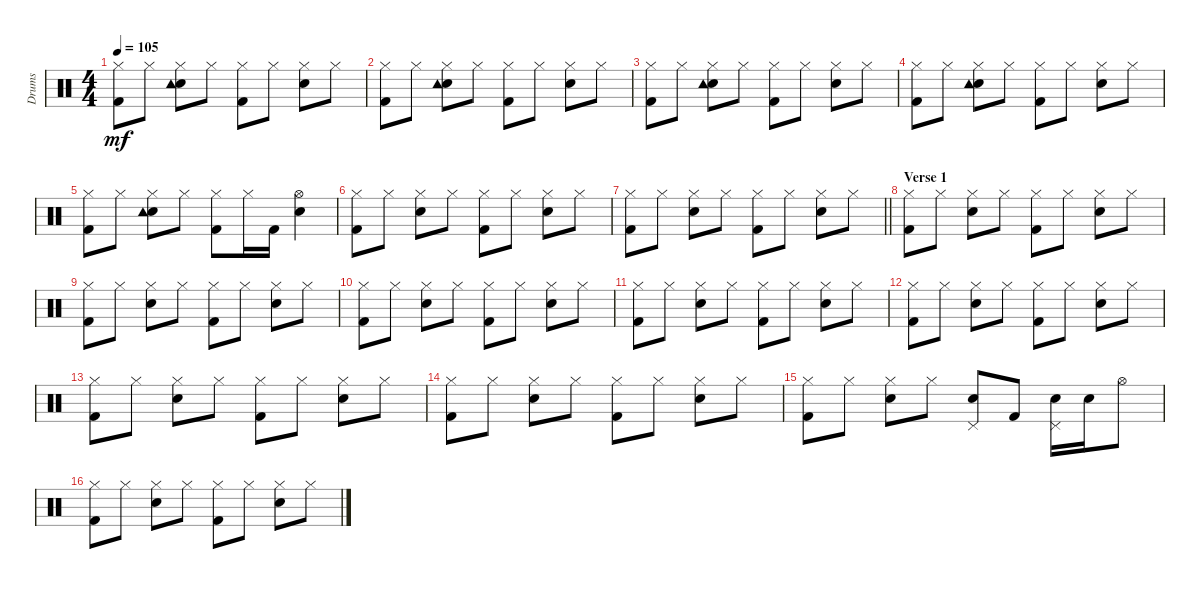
\track ("Drums" "Drums") {instrument percussion}
\staff {score}
\articulation defaults
\ts (4 4)
\tempo 105
\clef neutral
\ks c
("Hi-Hat (closed)" "Kick (hit) 2").8{dy mf} "Hi-Hat (closed)".8 ("Hi-Hat (closed)" "Snare (hit) 2" "Tambourine (hit)").8 "Hi-Hat (closed)".8 ("Hi-Hat (closed)" "Kick (hit) 2").8 "Hi-Hat (closed)".8 ("Hi-Hat (closed)" "Snare (hit) 2").8 "Hi-Hat (closed)".8 |
("Hi-Hat (closed)" "Kick (hit) 2").8 "Hi-Hat (closed)".8 ("Hi-Hat (closed)" "Snare (hit) 2" "Tambourine (hit)").8 "Hi-Hat (closed)".8 ("Hi-Hat (closed)" "Kick (hit) 2").8 "Hi-Hat (closed)".8 ("Hi-Hat (closed)" "Snare (hit) 2").8 "Hi-Hat (closed)".8 |
("Hi-Hat (closed)" "Kick (hit) 2").8 "Hi-Hat (closed)".8 ("Hi-Hat (closed)" "Snare (hit) 2" "Tambourine (hit)").8 "Hi-Hat (closed)".8 ("Hi-Hat (closed)" "Kick (hit) 2").8 "Hi-Hat (closed)".8 ("Hi-Hat (closed)" "Snare (hit) 2").8 "Hi-Hat (closed)".8 |
("Hi-Hat (closed)" "Kick (hit) 2").8 "Hi-Hat (closed)".8 ("Hi-Hat (closed)" "Snare (hit) 2" "Tambourine (hit)").8 "Hi-Hat (closed)".8 ("Hi-Hat (closed)" "Kick (hit) 2").8 "Hi-Hat (closed)".8 ("Hi-Hat (closed)" "Snare (hit) 2").8 "Hi-Hat (closed)".8 |
("Hi-Hat (closed)" "Kick (hit) 2").8 "Hi-Hat (closed)".8 ("Hi-Hat (closed)" "Snare (hit) 2" "Tambourine (hit)").8 "Hi-Hat (closed)".8 ("Hi-Hat (closed)" "Kick (hit) 2").8 "Hi-Hat (closed)".16 "Kick (hit) 2".16 ("Hi-Hat (open)" "Snare (hit) 2").4 |
("Hi-Hat (closed)" "Kick (hit) 2").8 "Hi-Hat (closed)".8 ("Hi-Hat (closed)" "Snare (hit) 2").8 "Hi-Hat (closed)".8 ("Hi-Hat (closed)" "Kick (hit) 2").8 "Hi-Hat (closed)".8 ("Hi-Hat (closed)" "Snare (hit) 2").8 "Hi-Hat (closed)".8 |
\barLineRight lightlight
("Hi-Hat (closed)" "Kick (hit) 2").8 "Hi-Hat (closed)".8 ("Hi-Hat (closed)" "Snare (hit) 2").8 "Hi-Hat (closed)".8 ("Hi-Hat (closed)" "Kick (hit) 2").8 "Hi-Hat (closed)".8 ("Hi-Hat (closed)" "Snare (hit) 2").8 "Hi-Hat (closed)".8 |
\section ("" "Verse 1")
("Hi-Hat (closed)" "Kick (hit) 2").8 "Hi-Hat (closed)".8 ("Hi-Hat (closed)" "Snare (hit) 2").8 "Hi-Hat (closed)".8 ("Hi-Hat (closed)" "Kick (hit) 2").8 "Hi-Hat (closed)".8 ("Hi-Hat (closed)" "Snare (hit) 2").8 "Hi-Hat (closed)".8 |
("Hi-Hat (closed)" "Kick (hit) 2").8 "Hi-Hat (closed)".8 ("Hi-Hat (closed)" "Snare (hit) 2").8 "Hi-Hat (closed)".8 ("Hi-Hat (closed)" "Kick (hit) 2").8 "Hi-Hat (closed)".8 ("Hi-Hat (closed)" "Snare (hit) 2").8 "Hi-Hat (closed)".8 |
("Hi-Hat (closed)" "Kick (hit) 2").8 "Hi-Hat (closed)".8 ("Hi-Hat (closed)" "Snare (hit) 2").8 "Hi-Hat (closed)".8 ("Hi-Hat (closed)" "Kick (hit) 2").8 "Hi-Hat (closed)".8 ("Hi-Hat (closed)" "Snare (hit) 2").8 "Hi-Hat (closed)".8 |
("Hi-Hat (closed)" "Kick (hit) 2").8 "Hi-Hat (closed)".8 ("Hi-Hat (closed)" "Snare (hit) 2").8 "Hi-Hat (closed)".8 ("Hi-Hat (closed)" "Kick (hit) 2").8 "Hi-Hat (closed)".8 ("Hi-Hat (closed)" "Snare (hit) 2").8 "Hi-Hat (closed)".8 |
("Hi-Hat (closed)" "Kick (hit) 2").8 "Hi-Hat (closed)".8 ("Hi-Hat (closed)" "Snare (hit) 2").8 "Hi-Hat (closed)".8 ("Hi-Hat (closed)" "Kick (hit) 2").8 "Hi-Hat (closed)".8 ("Hi-Hat (closed)" "Snare (hit) 2").8 "Hi-Hat (closed)".8 |
("Hi-Hat (closed)" "Kick (hit) 2").8 "Hi-Hat (closed)".8 ("Hi-Hat (closed)" "Snare (hit) 2").8 "Hi-Hat (closed)".8 ("Hi-Hat (closed)" "Kick (hit) 2").8 "Hi-Hat (closed)".8 ("Hi-Hat (closed)" "Snare (hit) 2").8 "Hi-Hat (closed)".8 |
("Hi-Hat (closed)" "Kick (hit) 2").8 "Hi-Hat (closed)".8 ("Hi-Hat (closed)" "Snare (hit) 2").8 "Hi-Hat (closed)".8 ("Hi-Hat (closed)" "Kick (hit) 2").8 "Hi-Hat (closed)".8 ("Hi-Hat (closed)" "Snare (hit) 2").8 "Hi-Hat (closed)".8 |
("Hi-Hat (closed)" "Kick (hit) 2").8 "Hi-Hat (closed)".8 ("Hi-Hat (closed)" "Snare (hit) 2").8 "Hi-Hat (closed)".8 ("Pedal Hi-Hat (hit)" "Snare (hit) 2").8 "Kick (hit) 2".8 ("Pedal Hi-Hat (hit)" "Snare (hit) 2").16 "Snare (hit) 2".16 "Hi-Hat (open)".8 |
("Hi-Hat (closed)" "Kick (hit) 2").8 "Hi-Hat (closed)".8 ("Hi-Hat (closed)" "Snare (hit) 2").8 "Hi-Hat (closed)".8 ("Hi-Hat (closed)" "Kick (hit) 2").8 "Hi-Hat (closed)".8 ("Hi-Hat (closed)" "Snare (hit) 2").8 "Hi-Hat (closed)".8
